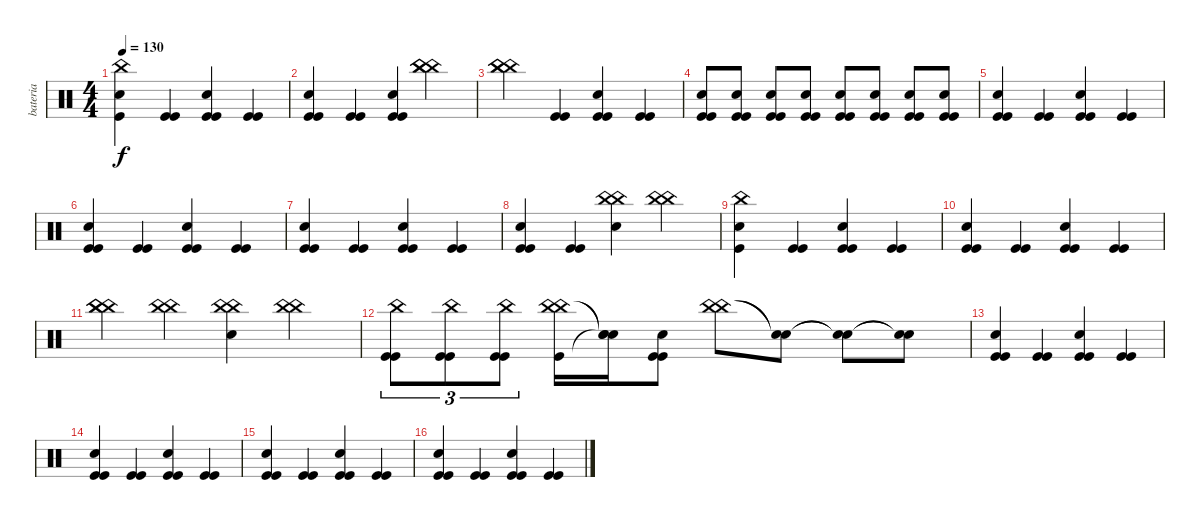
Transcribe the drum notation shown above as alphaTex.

\track ("bateria" "bateria") {instrument percussion}
\staff {score}
\articulation defaults
\ts (4 4)
\tempo 130
\clef neutral
\ks c
("China (hit)" "Snare (hit) 2" "Kick (hit)").4{dy f} ("Kick (hit)" "Kick (hit)").4 ("Kick (hit)" "Snare (hit) 2" "Kick (hit)").4 ("Kick (hit)" "Kick (hit)").4 |
("Kick (hit)" "Snare (hit) 2" "Kick (hit)").4 ("Kick (hit)" "Kick (hit)").4 ("Kick (hit)" "Snare (hit) 2" "Kick (hit)").4 ("China (hit)" "China (hit)" "China (hit)").4 |
("China (hit)" "China (hit)" "China (hit)").4 ("Kick (hit)" "Kick (hit)").4 ("Kick (hit)" "Snare (hit) 2" "Kick (hit)").4 ("Kick (hit)" "Kick (hit)").4 |
("Kick (hit)" "Snare (hit) 2" "Kick (hit)").8 ("Kick (hit)" "Snare (hit) 2" "Kick (hit)").8 ("Kick (hit)" "Snare (hit) 2" "Kick (hit)").8 ("Kick (hit)" "Snare (hit) 2" "Kick (hit)").8 ("Kick (hit)" "Snare (hit) 2" "Kick (hit)").8 ("Kick (hit)" "Snare (hit) 2" "Kick (hit)").8 ("Kick (hit)" "Snare (hit) 2" "Kick (hit)").8 ("Kick (hit)" "Snare (hit) 2" "Kick (hit)").8 |
("Kick (hit)" "Snare (hit) 2" "Kick (hit)").4 ("Kick (hit)" "Kick (hit)").4 ("Kick (hit)" "Snare (hit) 2" "Kick (hit)").4 ("Kick (hit)" "Kick (hit)").4 |
("Kick (hit)" "Snare (hit) 2" "Kick (hit)").4 ("Kick (hit)" "Kick (hit)").4 ("Kick (hit)" "Snare (hit) 2" "Kick (hit)").4 ("Kick (hit)" "Kick (hit)").4 |
("Kick (hit)" "Snare (hit) 2" "Kick (hit)").4 ("Kick (hit)" "Kick (hit)").4 ("Kick (hit)" "Snare (hit) 2" "Kick (hit)").4 ("Kick (hit)" "Kick (hit)").4 |
("Kick (hit)" "Snare (hit) 2" "Kick (hit)").4 ("Kick (hit)" "Kick (hit)").4 ("China (hit)" "Snare (hit) 2" "China (hit)").4 ("China (hit)" "China (hit)").4 |
("China (hit)" "Snare (hit) 2" "Kick (hit)").4 ("Kick (hit)" "Kick (hit)").4 ("Kick (hit)" "Snare (hit) 2" "Kick (hit)").4 ("Kick (hit)" "Kick (hit)").4 |
("Kick (hit)" "Snare (hit) 2" "Kick (hit)").4 ("Kick (hit)" "Kick (hit)").4 ("Kick (hit)" "Snare (hit) 2" "Kick (hit)").4 ("Kick (hit)" "Kick (hit)").4 |
("China (hit)" "China (hit)" "China (hit)").4 ("China (hit)" "China (hit)").4 ("China (hit)" "Snare (hit) 2" "China (hit)").4 ("China (hit)" "China (hit)").4 |
("China (hit)" "Kick (hit)" "Kick (hit)").8{tu (3 2)} ("China (hit)" "Kick (hit)" "Kick (hit)").8{tu (3 2)} ("China (hit)" "Kick (hit)" "Kick (hit)").8{tu (3 2)} ("China (hit)" "Kick (hit)" "China (hit)").16 ("Snare (hit)"{t} "Snare (hit)"{t} "Snare (hit)"{t}).16 ("Kick (hit)" "Kick (hit)" "Snare (hit) 2").8 ("China (hit)" "China (hit)").8 ("Snare (hit)"{t} "Snare (hit)"{t}).8 ("Snare (hit)"{t} "Snare (hit)"{t}).8 ("Snare (hit)"{t} "Snare (hit)"{t}).8 |
("Kick (hit)" "Snare (hit) 2" "Kick (hit)").4 ("Kick (hit)" "Kick (hit)").4 ("Kick (hit)" "Snare (hit) 2" "Kick (hit)").4 ("Kick (hit)" "Kick (hit)").4 |
("Kick (hit)" "Snare (hit) 2" "Kick (hit)").4 ("Kick (hit)" "Kick (hit)").4 ("Kick (hit)" "Snare (hit) 2" "Kick (hit)").4 ("Kick (hit)" "Kick (hit)").4 |
("Kick (hit)" "Snare (hit) 2" "Kick (hit)").4 ("Kick (hit)" "Kick (hit)").4 ("Kick (hit)" "Snare (hit) 2" "Kick (hit)").4 ("Kick (hit)" "Kick (hit)").4 |
("Kick (hit)" "Snare (hit) 2" "Kick (hit)").4 ("Kick (hit)" "Kick (hit)").4 ("Kick (hit)" "Snare (hit) 2" "Kick (hit)").4 ("Kick (hit)" "Kick (hit)").4
